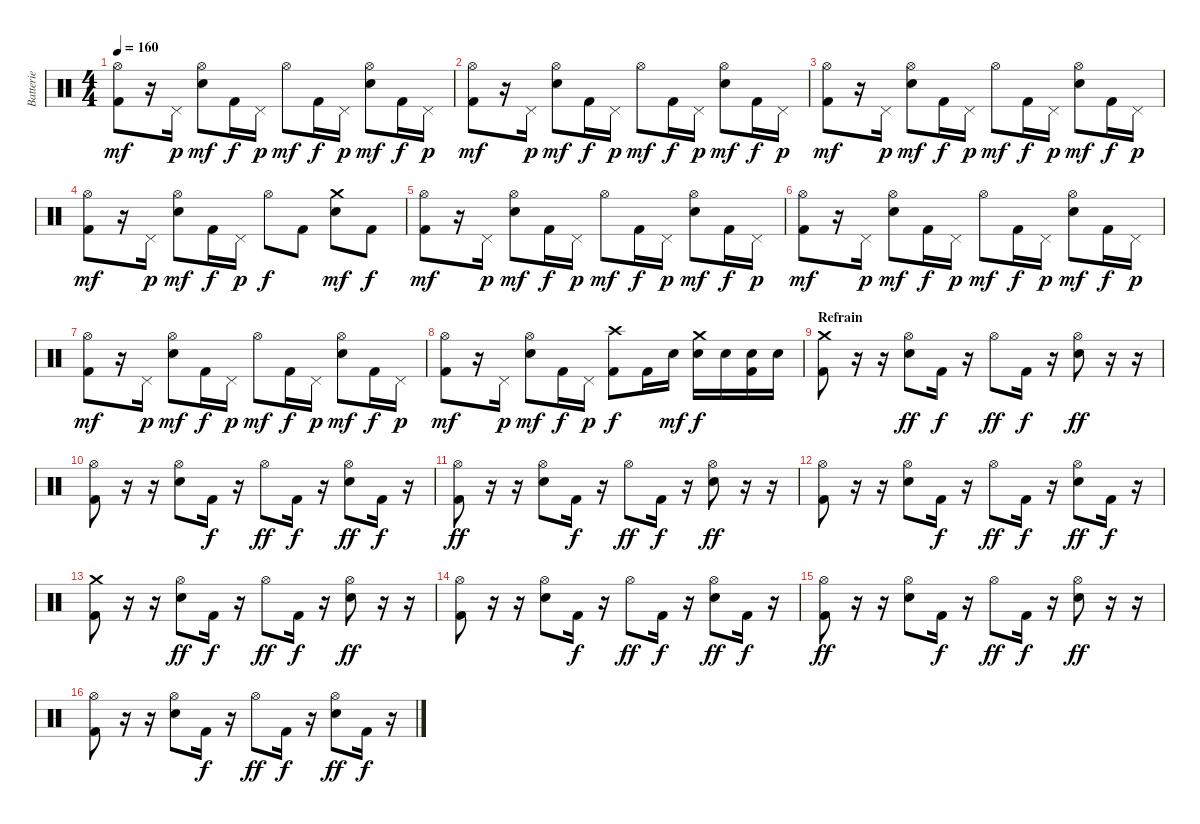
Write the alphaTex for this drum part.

\track ("Batterie" "Batterie") {instrument percussion}
\staff {score}
\articulation defaults
\ts (4 4)
\tempo 160
\clef neutral
\ks c
("Hi-Hat (open)" "Kick (hit) 2").8{dy mf} r.16 "Pedal Hi-Hat (hit)".16{dy p} ("Hi-Hat (open)" "Snare (hit) 2").8{dy mf} "Kick (hit) 2".16{dy f} "Pedal Hi-Hat (hit)".16{dy p} "Hi-Hat (open)".8{dy mf} "Kick (hit) 2".16{dy f} "Pedal Hi-Hat (hit)".16{dy p} ("Hi-Hat (open)" "Snare (hit) 2").8{dy mf} "Kick (hit) 2".16{dy f} "Pedal Hi-Hat (hit)".16{dy p} |
("Hi-Hat (open)" "Kick (hit) 2").8{dy mf} r.16 "Pedal Hi-Hat (hit)".16{dy p} ("Hi-Hat (open)" "Snare (hit) 2").8{dy mf} "Kick (hit) 2".16{dy f} "Pedal Hi-Hat (hit)".16{dy p} "Hi-Hat (open)".8{dy mf} "Kick (hit) 2".16{dy f} "Pedal Hi-Hat (hit)".16{dy p} ("Hi-Hat (open)" "Snare (hit) 2").8{dy mf} "Kick (hit) 2".16{dy f} "Pedal Hi-Hat (hit)".16{dy p} |
("Hi-Hat (open)" "Kick (hit) 2").8{dy mf} r.16 "Pedal Hi-Hat (hit)".16{dy p} ("Hi-Hat (open)" "Snare (hit) 2").8{dy mf} "Kick (hit) 2".16{dy f} "Pedal Hi-Hat (hit)".16{dy p} "Hi-Hat (open)".8{dy mf} "Kick (hit) 2".16{dy f} "Pedal Hi-Hat (hit)".16{dy p} ("Hi-Hat (open)" "Snare (hit) 2").8{dy mf} "Kick (hit) 2".16{dy f} "Pedal Hi-Hat (hit)".16{dy p} |
("Hi-Hat (open)" "Kick (hit) 2").8{dy mf} r.16 "Pedal Hi-Hat (hit)".16{dy p} ("Hi-Hat (open)" "Snare (hit) 2").8{dy mf} "Kick (hit) 2".16{dy f} "Pedal Hi-Hat (hit)".16{dy p} "Hi-Hat (open)".8{dy f} "Kick (hit) 2".8 ("Crash medium (hit)" "Snare (hit) 2").8{dy mf} "Kick (hit) 2".8{dy f} |
("Hi-Hat (open)" "Kick (hit) 2").8{dy mf} r.16 "Pedal Hi-Hat (hit)".16{dy p} ("Hi-Hat (open)" "Snare (hit) 2").8{dy mf} "Kick (hit) 2".16{dy f} "Pedal Hi-Hat (hit)".16{dy p} "Hi-Hat (open)".8{dy mf} "Kick (hit) 2".16{dy f} "Pedal Hi-Hat (hit)".16{dy p} ("Hi-Hat (open)" "Snare (hit) 2").8{dy mf} "Kick (hit) 2".16{dy f} "Pedal Hi-Hat (hit)".16{dy p} |
("Hi-Hat (open)" "Kick (hit) 2").8{dy mf} r.16 "Pedal Hi-Hat (hit)".16{dy p} ("Hi-Hat (open)" "Snare (hit) 2").8{dy mf} "Kick (hit) 2".16{dy f} "Pedal Hi-Hat (hit)".16{dy p} "Hi-Hat (open)".8{dy mf} "Kick (hit) 2".16{dy f} "Pedal Hi-Hat (hit)".16{dy p} ("Hi-Hat (open)" "Snare (hit) 2").8{dy mf} "Kick (hit) 2".16{dy f} "Pedal Hi-Hat (hit)".16{dy p} |
("Hi-Hat (open)" "Kick (hit) 2").8{dy mf} r.16 "Pedal Hi-Hat (hit)".16{dy p} ("Hi-Hat (open)" "Snare (hit) 2").8{dy mf} "Kick (hit) 2".16{dy f} "Pedal Hi-Hat (hit)".16{dy p} "Hi-Hat (open)".8{dy mf} "Kick (hit) 2".16{dy f} "Pedal Hi-Hat (hit)".16{dy p} ("Hi-Hat (open)" "Snare (hit) 2").8{dy mf} "Kick (hit) 2".16{dy f} "Pedal Hi-Hat (hit)".16{dy p} |
("Hi-Hat (open)" "Kick (hit) 2").8{dy mf} r.16 "Pedal Hi-Hat (hit)".16{dy p} ("Hi-Hat (open)" "Snare (hit) 2").8{dy mf} "Kick (hit) 2".16{dy f} "Pedal Hi-Hat (hit)".16{dy p} ("Crash high (hit)" "Kick (hit) 2").8{dy f} "Kick (hit) 2".16 "Snare (hit) 2".16{dy mf} ("Crash medium (hit)" "Snare (hit) 2").16{dy f} "Snare (hit) 2".16 ("Snare (hit) 2" "Kick (hit) 2").16 "Snare (hit) 2".16 |
\section ("" "Refrain")
("Crash medium (hit)" "Kick (hit) 2").8 r.16 r.16 ("Hi-Hat (open)" "Snare (hit) 2").8{dy ff} "Kick (hit) 2".16{dy f} r.16 "Hi-Hat (open)".8{dy ff} "Kick (hit) 2".16{dy f} r.16 ("Hi-Hat (open)" "Snare (hit) 2").8{dy ff} r.16 r.16 |
("Hi-Hat (open)" "Kick (hit) 2").8 r.16 r.16 ("Hi-Hat (open)" "Snare (hit) 2").8 "Kick (hit) 2".16{dy f} r.16 "Hi-Hat (open)".8{dy ff} "Kick (hit) 2".16{dy f} r.16 ("Hi-Hat (open)" "Snare (hit) 2").8{dy ff} "Kick (hit) 2".16{dy f} r.16 |
("Hi-Hat (open)" "Kick (hit) 2").8{dy ff} r.16 r.16 ("Hi-Hat (open)" "Snare (hit) 2").8 "Kick (hit) 2".16{dy f} r.16 "Hi-Hat (open)".8{dy ff} "Kick (hit) 2".16{dy f} r.16 ("Hi-Hat (open)" "Snare (hit) 2").8{dy ff} r.16 r.16 |
("Hi-Hat (open)" "Kick (hit) 2").8 r.16 r.16 ("Hi-Hat (open)" "Snare (hit) 2").8 "Kick (hit) 2".16{dy f} r.16 "Hi-Hat (open)".8{dy ff} "Kick (hit) 2".16{dy f} r.16 ("Hi-Hat (open)" "Snare (hit) 2").8{dy ff} "Kick (hit) 2".16{dy f} r.16 |
("Crash medium (hit)" "Kick (hit) 2").8 r.16 r.16 ("Hi-Hat (open)" "Snare (hit) 2").8{dy ff} "Kick (hit) 2".16{dy f} r.16 "Hi-Hat (open)".8{dy ff} "Kick (hit) 2".16{dy f} r.16 ("Hi-Hat (open)" "Snare (hit) 2").8{dy ff} r.16 r.16 |
("Hi-Hat (open)" "Kick (hit) 2").8 r.16 r.16 ("Hi-Hat (open)" "Snare (hit) 2").8 "Kick (hit) 2".16{dy f} r.16 "Hi-Hat (open)".8{dy ff} "Kick (hit) 2".16{dy f} r.16 ("Hi-Hat (open)" "Snare (hit) 2").8{dy ff} "Kick (hit) 2".16{dy f} r.16 |
("Hi-Hat (open)" "Kick (hit) 2").8{dy ff} r.16 r.16 ("Hi-Hat (open)" "Snare (hit) 2").8 "Kick (hit) 2".16{dy f} r.16 "Hi-Hat (open)".8{dy ff} "Kick (hit) 2".16{dy f} r.16 ("Hi-Hat (open)" "Snare (hit) 2").8{dy ff} r.16 r.16 |
("Hi-Hat (open)" "Kick (hit) 2").8 r.16 r.16 ("Hi-Hat (open)" "Snare (hit) 2").8 "Kick (hit) 2".16{dy f} r.16 "Hi-Hat (open)".8{dy ff} "Kick (hit) 2".16{dy f} r.16 ("Hi-Hat (open)" "Snare (hit) 2").8{dy ff} "Kick (hit) 2".16{dy f} r.16
